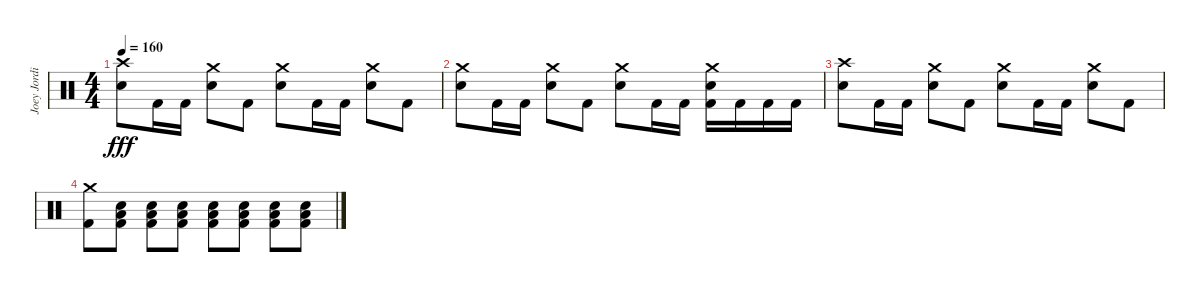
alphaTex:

\track ("Joey Jordison" "Joey Jordi") {instrument percussion}
\staff {score}
\articulation defaults
\ts (4 4)
\tempo 160
\clef neutral
\ks c
("Crash high (hit)" "Electric Snare (hit)").8{dy fff} "Kick (hit) 2".16 "Kick (hit) 2".16 ("Crash medium (hit)" "Electric Snare (hit)").8 "Kick (hit) 2".8 ("Crash medium (hit)" "Electric Snare (hit)").8 "Kick (hit) 2".16 "Kick (hit) 2".16 ("Crash medium (hit)" "Electric Snare (hit)").8 "Kick (hit) 2".8 |
("Crash medium (hit)" "Electric Snare (hit)").8 "Kick (hit) 2".16 "Kick (hit) 2".16 ("Crash medium (hit)" "Electric Snare (hit)").8 "Kick (hit) 2".8 ("Crash medium (hit)" "Electric Snare (hit)").8 "Kick (hit) 2".16 "Kick (hit) 2".16 ("Crash medium (hit)" "Electric Snare (hit)" "Kick (hit) 2").16 "Kick (hit) 2".16 "Kick (hit) 2".16 "Kick (hit) 2".16 |
("Crash high (hit)" "Electric Snare (hit)").8 "Kick (hit) 2".16 "Kick (hit) 2".16 ("Crash medium (hit)" "Electric Snare (hit)").8 "Kick (hit) 2".8 ("Crash medium (hit)" "Electric Snare (hit)").8 "Kick (hit) 2".16 "Kick (hit) 2".16 ("Crash medium (hit)" "Electric Snare (hit)").8 "Kick (hit) 2".8 |
("Crash medium (hit)" "Kick (hit) 2").8 ("Electric Snare (hit)" "Low Floor Tom (hit)" "Kick (hit) 2").8 ("Electric Snare (hit)" "Low Floor Tom (hit)" "Kick (hit) 2").8 ("Electric Snare (hit)" "Low Floor Tom (hit)" "Kick (hit) 2").8 ("Electric Snare (hit)" "Low Floor Tom (hit)" "Kick (hit) 2").8 ("Electric Snare (hit)" "Low Floor Tom (hit)" "Kick (hit) 2").8 ("Electric Snare (hit)" "Low Floor Tom (hit)" "Kick (hit) 2").8 ("Electric Snare (hit)" "Low Floor Tom (hit)" "Kick (hit) 2").8
